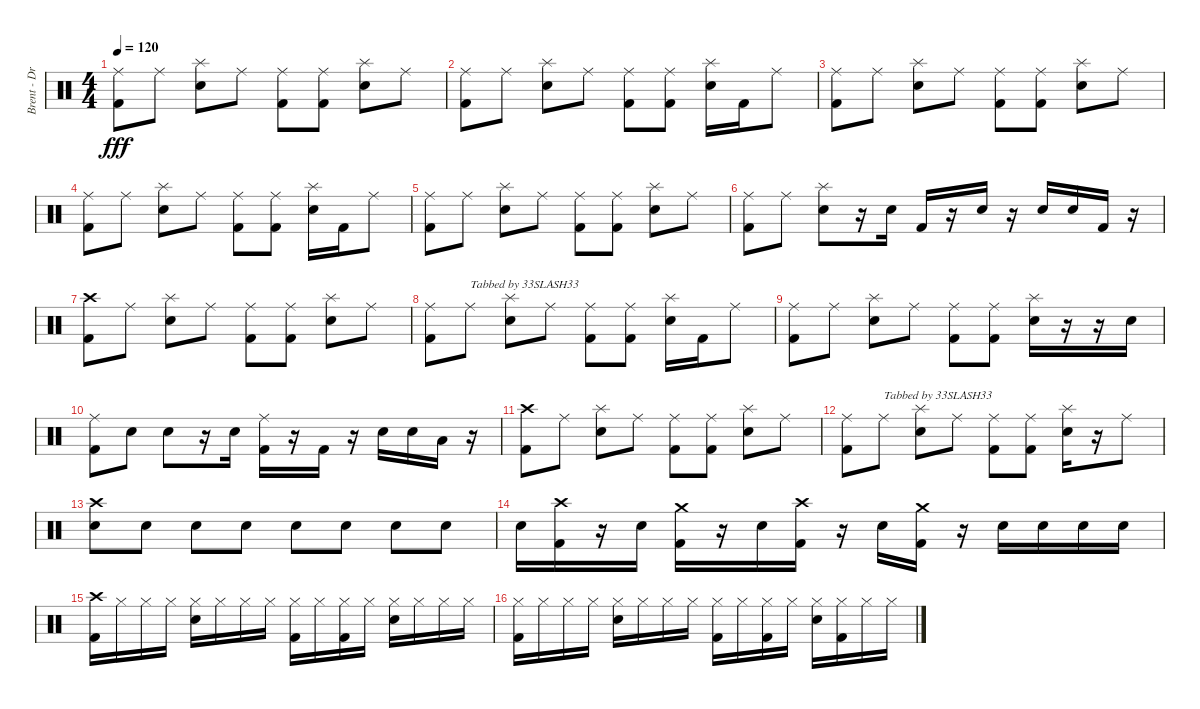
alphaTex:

\track ("Brent - Drums" "Brent - Dr") {instrument percussion}
\staff {score}
\articulation defaults
\ts (4 4)
\tempo 120
\clef neutral
\ks c
("Ride (middle)" "Kick (hit) 2").8{dy fff} "Ride (middle)".8 ("Splash (hit)" "Snare (hit) 2").8 "Ride (middle)".8 ("Ride (middle)" "Kick (hit) 2").8 ("Ride (middle)" "Kick (hit) 2").8 ("Splash (hit)" "Snare (hit) 2").8 "Ride (middle)".8 |
("Ride (middle)" "Kick (hit) 2").8 "Ride (middle)".8 ("Splash (hit)" "Snare (hit) 2").8 "Ride (middle)".8 ("Ride (middle)" "Kick (hit) 2").8 ("Ride (middle)" "Kick (hit) 2").8 ("Splash (hit)" "Snare (hit) 2").16 "Kick (hit) 2".16 "Ride (middle)".8 |
("Ride (middle)" "Kick (hit) 2").8 "Ride (middle)".8 ("Splash (hit)" "Snare (hit) 2").8 "Ride (middle)".8 ("Ride (middle)" "Kick (hit) 2").8 ("Ride (middle)" "Kick (hit) 2").8 ("Splash (hit)" "Snare (hit) 2").8 "Ride (middle)".8 |
("Ride (middle)" "Kick (hit) 2").8 "Ride (middle)".8 ("Splash (hit)" "Snare (hit) 2").8 "Ride (middle)".8 ("Ride (middle)" "Kick (hit) 2").8 ("Ride (middle)" "Kick (hit) 2").8 ("Splash (hit)" "Snare (hit) 2").16 "Kick (hit) 2".16 "Ride (middle)".8 |
("Ride (middle)" "Kick (hit) 2").8 "Ride (middle)".8 ("Splash (hit)" "Snare (hit) 2").8 "Ride (middle)".8 ("Ride (middle)" "Kick (hit) 2").8 ("Ride (middle)" "Kick (hit) 2").8 ("Splash (hit)" "Snare (hit) 2").8 "Ride (middle)".8 |
("Ride (middle)" "Kick (hit) 2").8 "Ride (middle)".8 ("Splash (hit)" "Snare (hit) 2").8 r.16 "Snare (hit) 2".16 "Kick (hit) 2".16 r.16 "Snare (hit) 2".16 r.16 "Snare (hit) 2".16 "Snare (hit) 2".16 "Kick (hit) 2".16 r.16 |
("Crash high (hit)" "Kick (hit) 2").8 "Ride (middle)".8 ("Splash (hit)" "Snare (hit) 2").8 "Ride (middle)".8 ("Ride (middle)" "Kick (hit) 2").8 ("Ride (middle)" "Kick (hit) 2").8 ("Splash (hit)" "Snare (hit) 2").8 "Ride (middle)".8 |
("Ride (middle)" "Kick (hit) 2").8 "Ride (middle)".8{txt "Tabbed by 33SLASH33"} ("Splash (hit)" "Snare (hit) 2").8 "Ride (middle)".8 ("Ride (middle)" "Kick (hit) 2").8 ("Ride (middle)" "Kick (hit) 2").8 ("Splash (hit)" "Snare (hit) 2").16 "Kick (hit) 2".16 "Ride (middle)".8 |
("Ride (middle)" "Kick (hit) 2").8 "Ride (middle)".8 ("Splash (hit)" "Snare (hit) 2").8 "Ride (middle)".8 ("Ride (middle)" "Kick (hit) 2").8 ("Ride (middle)" "Kick (hit) 2").8 ("Splash (hit)" "Snare (hit) 2").16 r.16 r.16 "Snare (hit) 2".16 |
("Ride (middle)" "Kick (hit) 2").8 "Snare (hit) 2".8 "Snare (hit) 2".8 r.16 "Snare (hit) 2".16 ("Ride (middle)" "Kick (hit) 2").16 r.16 "Kick (hit) 2".16 r.16 "Snare (hit) 2".16 "Snare (hit) 2".16 "Low Tom (hit)".16 r.16 |
("Crash high (hit)" "Kick (hit) 2").8 "Ride (middle)".8 ("Splash (hit)" "Snare (hit) 2").8 "Ride (middle)".8 ("Ride (middle)" "Kick (hit) 2").8 ("Ride (middle)" "Kick (hit) 2").8 ("Splash (hit)" "Snare (hit) 2").8 "Ride (middle)".8 |
("Ride (middle)" "Kick (hit) 2").8 "Ride (middle)".8{txt "Tabbed by 33SLASH33"} ("Splash (hit)" "Snare (hit) 2").8 "Ride (middle)".8 ("Ride (middle)" "Kick (hit) 2").8 ("Ride (middle)" "Kick (hit) 2").8 ("Splash (hit)" "Snare (hit) 2").16 r.16 "Ride (middle)".8 |
("Crash high (hit)" "Snare (hit) 2").8 "Snare (hit) 2".8 "Snare (hit) 2".8 "Snare (hit) 2".8 "Snare (hit) 2".8 "Snare (hit) 2".8 "Snare (hit) 2".8 "Snare (hit) 2".8 |
"Snare (hit) 2".16 ("Crash high (hit)" "Kick (hit) 2").16 r.16 "Snare (hit) 2".16 ("Crash medium (hit)" "Kick (hit) 2").16 r.16 "Snare (hit) 2".16 ("Crash high (hit)" "Kick (hit) 2").16 r.16 "Snare (hit) 2".16 ("Crash medium (hit)" "Kick (hit) 2").16 r.16 "Snare (hit) 2".16 "Snare (hit) 2".16 "Snare (hit) 2".16 "Snare (hit) 2".16 |
("Crash high (hit)" "Kick (hit) 2").16 "Hi-Hat (closed)".16 "Hi-Hat (closed)".16 "Hi-Hat (closed)".16 ("Hi-Hat (closed)" "Snare (hit) 2").16 "Hi-Hat (closed)".16 "Hi-Hat (closed)".16 "Hi-Hat (closed)".16 ("Hi-Hat (closed)" "Kick (hit) 2").16 "Hi-Hat (closed)".16 ("Hi-Hat (closed)" "Kick (hit) 2").16 "Hi-Hat (closed)".16 ("Hi-Hat (closed)" "Snare (hit) 2").16 "Hi-Hat (closed)".16 "Hi-Hat (closed)".16 "Hi-Hat (closed)".16 |
("Hi-Hat (closed)" "Kick (hit) 2").16 "Hi-Hat (closed)".16 "Hi-Hat (closed)".16 "Hi-Hat (closed)".16 ("Hi-Hat (closed)" "Snare (hit) 2").16 "Hi-Hat (closed)".16 "Hi-Hat (closed)".16 "Hi-Hat (closed)".16 ("Hi-Hat (closed)" "Kick (hit) 2").16 "Hi-Hat (closed)".16 ("Hi-Hat (closed)" "Kick (hit) 2").16 "Hi-Hat (closed)".16 ("Hi-Hat (closed)" "Snare (hit) 2").16 ("Hi-Hat (closed)" "Kick (hit) 2").16 "Hi-Hat (closed)".16 "Hi-Hat (closed)".16
